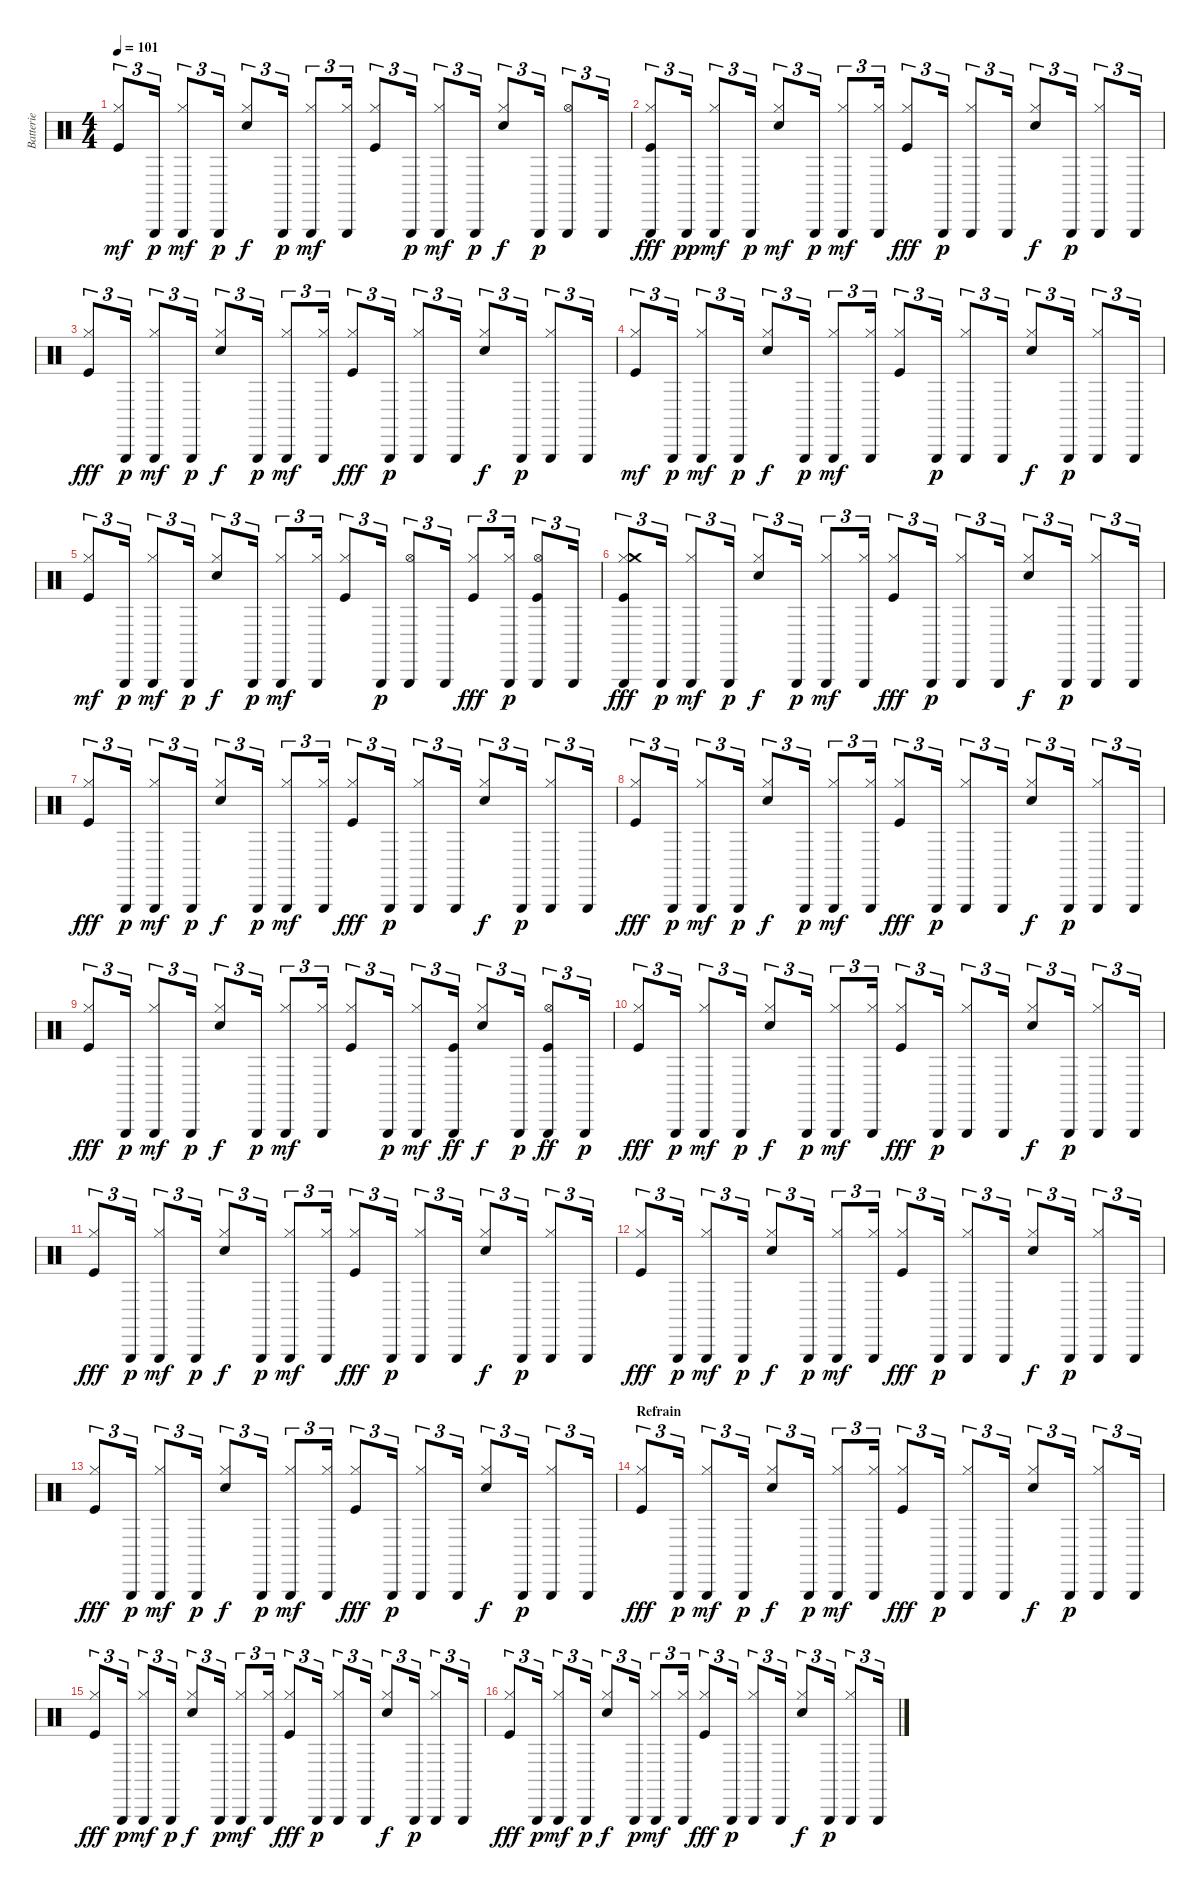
\track ("Batterie" "Batterie") {instrument percussion}
\staff {score}
\articulation defaults
\ts (4 4)
\tempo 101
\clef neutral
\ks c
("Kick (hit)" "Hi-Hat (closed)").8{tu (3 2) dy mf} "Triangle (hit)".16{tu (3 2) dy p} ("Triangle (hit)" "Hi-Hat (closed)").8{tu (3 2) dy mf} "Triangle (hit)".16{tu (3 2) dy p} ("Electric Snare (hit)" "Hi-Hat (closed)").8{tu (3 2) dy f} "Triangle (hit)".16{tu (3 2) dy p} ("Triangle (hit)" "Hi-Hat (closed)").8{tu (3 2) dy mf} ("Triangle (hit)" "Hi-Hat (closed)").16{tu (3 2)} ("Kick (hit)" "Hi-Hat (closed)").8{tu (3 2)} "Triangle (hit)".16{tu (3 2) dy p} ("Triangle (hit)" "Hi-Hat (closed)").8{tu (3 2) dy mf} "Triangle (hit)".16{tu (3 2) dy p} ("Electric Snare (hit)" "Hi-Hat (closed)").8{tu (3 2) dy f} "Triangle (hit)".16{tu (3 2) dy p} ("Hi-Hat (open)" "Triangle (hit)").8{tu (3 2)} "Triangle (hit)".16{tu (3 2)} |
("Triangle (hit)" "Kick (hit)" "Hi-Hat (closed)").8{tu (3 2) dy fff} "Triangle (hit)".16{tu (3 2) dy pp} ("Triangle (hit)" "Hi-Hat (closed)").8{tu (3 2) dy mf} "Triangle (hit)".16{tu (3 2) dy p} ("Electric Snare (hit)" "Hi-Hat (closed)").8{tu (3 2) dy mf} "Triangle (hit)".16{tu (3 2) dy p} ("Triangle (hit)" "Hi-Hat (closed)").8{tu (3 2) dy mf} ("Triangle (hit)" "Hi-Hat (closed)").16{tu (3 2)} ("Kick (hit)" "Hi-Hat (closed)").8{tu (3 2) dy fff} "Triangle (hit)".16{tu (3 2) dy p} ("Triangle (hit)" "Hi-Hat (closed)").8{tu (3 2)} "Triangle (hit)".16{tu (3 2)} ("Electric Snare (hit)" "Hi-Hat (closed)").8{tu (3 2) dy f} "Triangle (hit)".16{tu (3 2) dy p} ("Triangle (hit)" "Hi-Hat (closed)").8{tu (3 2)} "Triangle (hit)".16{tu (3 2)} |
("Kick (hit)" "Hi-Hat (closed)").8{tu (3 2) dy fff} "Triangle (hit)".16{tu (3 2) dy p} ("Triangle (hit)" "Hi-Hat (closed)").8{tu (3 2) dy mf} "Triangle (hit)".16{tu (3 2) dy p} ("Electric Snare (hit)" "Hi-Hat (closed)").8{tu (3 2) dy f} "Triangle (hit)".16{tu (3 2) dy p} ("Triangle (hit)" "Hi-Hat (closed)").8{tu (3 2) dy mf} ("Triangle (hit)" "Hi-Hat (closed)").16{tu (3 2)} ("Kick (hit)" "Hi-Hat (closed)").8{tu (3 2) dy fff} "Triangle (hit)".16{tu (3 2) dy p} ("Triangle (hit)" "Hi-Hat (closed)").8{tu (3 2)} "Triangle (hit)".16{tu (3 2)} ("Electric Snare (hit)" "Hi-Hat (closed)").8{tu (3 2) dy f} "Triangle (hit)".16{tu (3 2) dy p} ("Triangle (hit)" "Hi-Hat (closed)").8{tu (3 2)} "Triangle (hit)".16{tu (3 2)} |
("Kick (hit)" "Hi-Hat (closed)").8{tu (3 2) dy mf} "Triangle (hit)".16{tu (3 2) dy p} ("Triangle (hit)" "Hi-Hat (closed)").8{tu (3 2) dy mf} "Triangle (hit)".16{tu (3 2) dy p} ("Electric Snare (hit)" "Hi-Hat (closed)").8{tu (3 2) dy f} "Triangle (hit)".16{tu (3 2) dy p} ("Triangle (hit)" "Hi-Hat (closed)").8{tu (3 2) dy mf} ("Triangle (hit)" "Hi-Hat (closed)").16{tu (3 2)} ("Kick (hit)" "Hi-Hat (closed)").8{tu (3 2)} "Triangle (hit)".16{tu (3 2) dy p} ("Triangle (hit)" "Hi-Hat (closed)").8{tu (3 2)} "Triangle (hit)".16{tu (3 2)} ("Electric Snare (hit)" "Hi-Hat (closed)").8{tu (3 2) dy f} "Triangle (hit)".16{tu (3 2) dy p} ("Triangle (hit)" "Hi-Hat (closed)").8{tu (3 2)} "Triangle (hit)".16{tu (3 2)} |
("Kick (hit)" "Hi-Hat (closed)").8{tu (3 2) dy mf} "Triangle (hit)".16{tu (3 2) dy p} ("Triangle (hit)" "Hi-Hat (closed)").8{tu (3 2) dy mf} "Triangle (hit)".16{tu (3 2) dy p} ("Electric Snare (hit)" "Hi-Hat (closed)").8{tu (3 2) dy f} "Triangle (hit)".16{tu (3 2) dy p} ("Triangle (hit)" "Hi-Hat (closed)").8{tu (3 2) dy mf} ("Triangle (hit)" "Hi-Hat (closed)").16{tu (3 2)} ("Kick (hit)" "Hi-Hat (closed)").8{tu (3 2)} "Triangle (hit)".16{tu (3 2) dy p} ("Hi-Hat (open)" "Triangle (hit)").8{tu (3 2)} "Triangle (hit)".16{tu (3 2)} ("Kick (hit)" "Hi-Hat (closed)").8{tu (3 2) dy fff} ("Triangle (hit)" "Hi-Hat (closed)").16{tu (3 2) dy p} ("Hi-Hat (open)" "Triangle (hit)" "Kick (hit)").8{tu (3 2)} "Triangle (hit)".16{tu (3 2)} |
("Triangle (hit)" "Kick (hit)" "Hi-Hat (closed)" "Crash medium (hit)").8{tu (3 2) dy fff} "Triangle (hit)".16{tu (3 2) dy p} ("Triangle (hit)" "Hi-Hat (closed)").8{tu (3 2) dy mf} "Triangle (hit)".16{tu (3 2) dy p} ("Electric Snare (hit)" "Hi-Hat (closed)").8{tu (3 2) dy f} "Triangle (hit)".16{tu (3 2) dy p} ("Triangle (hit)" "Hi-Hat (closed)").8{tu (3 2) dy mf} ("Triangle (hit)" "Hi-Hat (closed)").16{tu (3 2)} ("Kick (hit)" "Hi-Hat (closed)").8{tu (3 2) dy fff} "Triangle (hit)".16{tu (3 2) dy p} ("Triangle (hit)" "Hi-Hat (closed)").8{tu (3 2)} "Triangle (hit)".16{tu (3 2)} ("Electric Snare (hit)" "Hi-Hat (closed)").8{tu (3 2) dy f} "Triangle (hit)".16{tu (3 2) dy p} ("Triangle (hit)" "Hi-Hat (closed)").8{tu (3 2)} "Triangle (hit)".16{tu (3 2)} |
("Kick (hit)" "Hi-Hat (closed)").8{tu (3 2) dy fff} "Triangle (hit)".16{tu (3 2) dy p} ("Triangle (hit)" "Hi-Hat (closed)").8{tu (3 2) dy mf} "Triangle (hit)".16{tu (3 2) dy p} ("Electric Snare (hit)" "Hi-Hat (closed)").8{tu (3 2) dy f} "Triangle (hit)".16{tu (3 2) dy p} ("Triangle (hit)" "Hi-Hat (closed)").8{tu (3 2) dy mf} ("Triangle (hit)" "Hi-Hat (closed)").16{tu (3 2)} ("Kick (hit)" "Hi-Hat (closed)").8{tu (3 2) dy fff} "Triangle (hit)".16{tu (3 2) dy p} ("Triangle (hit)" "Hi-Hat (closed)").8{tu (3 2)} "Triangle (hit)".16{tu (3 2)} ("Electric Snare (hit)" "Hi-Hat (closed)").8{tu (3 2) dy f} "Triangle (hit)".16{tu (3 2) dy p} ("Triangle (hit)" "Hi-Hat (closed)").8{tu (3 2)} "Triangle (hit)".16{tu (3 2)} |
("Kick (hit)" "Hi-Hat (closed)").8{tu (3 2) dy fff} "Triangle (hit)".16{tu (3 2) dy p} ("Triangle (hit)" "Hi-Hat (closed)").8{tu (3 2) dy mf} "Triangle (hit)".16{tu (3 2) dy p} ("Electric Snare (hit)" "Hi-Hat (closed)").8{tu (3 2) dy f} "Triangle (hit)".16{tu (3 2) dy p} ("Triangle (hit)" "Hi-Hat (closed)").8{tu (3 2) dy mf} ("Triangle (hit)" "Hi-Hat (closed)").16{tu (3 2)} ("Kick (hit)" "Hi-Hat (closed)").8{tu (3 2) dy fff} "Triangle (hit)".16{tu (3 2) dy p} ("Triangle (hit)" "Hi-Hat (closed)").8{tu (3 2)} "Triangle (hit)".16{tu (3 2)} ("Electric Snare (hit)" "Hi-Hat (closed)").8{tu (3 2) dy f} "Triangle (hit)".16{tu (3 2) dy p} ("Triangle (hit)" "Hi-Hat (closed)").8{tu (3 2)} "Triangle (hit)".16{tu (3 2)} |
("Kick (hit)" "Hi-Hat (closed)").8{tu (3 2) dy fff} "Triangle (hit)".16{tu (3 2) dy p} ("Triangle (hit)" "Hi-Hat (closed)").8{tu (3 2) dy mf} "Triangle (hit)".16{tu (3 2) dy p} ("Electric Snare (hit)" "Hi-Hat (closed)").8{tu (3 2) dy f} "Triangle (hit)".16{tu (3 2) dy p} ("Triangle (hit)" "Hi-Hat (closed)").8{tu (3 2) dy mf} ("Triangle (hit)" "Hi-Hat (closed)").16{tu (3 2)} ("Kick (hit)" "Hi-Hat (closed)").8{tu (3 2)} "Triangle (hit)".16{tu (3 2) dy p} ("Triangle (hit)" "Hi-Hat (closed)").8{tu (3 2) dy mf} ("Triangle (hit)" "Kick (hit)").16{tu (3 2) dy ff} ("Electric Snare (hit)" "Hi-Hat (closed)").8{tu (3 2) dy f} "Triangle (hit)".16{tu (3 2) dy p} ("Hi-Hat (open)" "Triangle (hit)" "Kick (hit)").8{tu (3 2) dy ff} "Triangle (hit)".16{tu (3 2) dy p} |
("Kick (hit)" "Hi-Hat (closed)").8{tu (3 2) dy fff} "Triangle (hit)".16{tu (3 2) dy p} ("Triangle (hit)" "Hi-Hat (closed)").8{tu (3 2) dy mf} "Triangle (hit)".16{tu (3 2) dy p} ("Electric Snare (hit)" "Hi-Hat (closed)").8{tu (3 2) dy f} "Triangle (hit)".16{tu (3 2) dy p} ("Triangle (hit)" "Hi-Hat (closed)").8{tu (3 2) dy mf} ("Triangle (hit)" "Hi-Hat (closed)").16{tu (3 2)} ("Kick (hit)" "Hi-Hat (closed)").8{tu (3 2) dy fff} "Triangle (hit)".16{tu (3 2) dy p} ("Triangle (hit)" "Hi-Hat (closed)").8{tu (3 2)} "Triangle (hit)".16{tu (3 2)} ("Electric Snare (hit)" "Hi-Hat (closed)").8{tu (3 2) dy f} "Triangle (hit)".16{tu (3 2) dy p} ("Triangle (hit)" "Hi-Hat (closed)").8{tu (3 2)} "Triangle (hit)".16{tu (3 2)} |
("Kick (hit)" "Hi-Hat (closed)").8{tu (3 2) dy fff} "Triangle (hit)".16{tu (3 2) dy p} ("Triangle (hit)" "Hi-Hat (closed)").8{tu (3 2) dy mf} "Triangle (hit)".16{tu (3 2) dy p} ("Electric Snare (hit)" "Hi-Hat (closed)").8{tu (3 2) dy f} "Triangle (hit)".16{tu (3 2) dy p} ("Triangle (hit)" "Hi-Hat (closed)").8{tu (3 2) dy mf} ("Triangle (hit)" "Hi-Hat (closed)").16{tu (3 2)} ("Kick (hit)" "Hi-Hat (closed)").8{tu (3 2) dy fff} "Triangle (hit)".16{tu (3 2) dy p} ("Triangle (hit)" "Hi-Hat (closed)").8{tu (3 2)} "Triangle (hit)".16{tu (3 2)} ("Electric Snare (hit)" "Hi-Hat (closed)").8{tu (3 2) dy f} "Triangle (hit)".16{tu (3 2) dy p} ("Triangle (hit)" "Hi-Hat (closed)").8{tu (3 2)} "Triangle (hit)".16{tu (3 2)} |
("Kick (hit)" "Hi-Hat (closed)").8{tu (3 2) dy fff} "Triangle (hit)".16{tu (3 2) dy p} ("Triangle (hit)" "Hi-Hat (closed)").8{tu (3 2) dy mf} "Triangle (hit)".16{tu (3 2) dy p} ("Electric Snare (hit)" "Hi-Hat (closed)").8{tu (3 2) dy f} "Triangle (hit)".16{tu (3 2) dy p} ("Triangle (hit)" "Hi-Hat (closed)").8{tu (3 2) dy mf} ("Triangle (hit)" "Hi-Hat (closed)").16{tu (3 2)} ("Kick (hit)" "Hi-Hat (closed)").8{tu (3 2) dy fff} "Triangle (hit)".16{tu (3 2) dy p} ("Triangle (hit)" "Hi-Hat (closed)").8{tu (3 2)} "Triangle (hit)".16{tu (3 2)} ("Electric Snare (hit)" "Hi-Hat (closed)").8{tu (3 2) dy f} "Triangle (hit)".16{tu (3 2) dy p} ("Triangle (hit)" "Hi-Hat (closed)").8{tu (3 2)} "Triangle (hit)".16{tu (3 2)} |
("Kick (hit)" "Hi-Hat (closed)").8{tu (3 2) dy fff} "Triangle (hit)".16{tu (3 2) dy p} ("Triangle (hit)" "Hi-Hat (closed)").8{tu (3 2) dy mf} "Triangle (hit)".16{tu (3 2) dy p} ("Electric Snare (hit)" "Hi-Hat (closed)").8{tu (3 2) dy f} "Triangle (hit)".16{tu (3 2) dy p} ("Triangle (hit)" "Hi-Hat (closed)").8{tu (3 2) dy mf} ("Triangle (hit)" "Hi-Hat (closed)").16{tu (3 2)} ("Kick (hit)" "Hi-Hat (closed)").8{tu (3 2) dy fff} "Triangle (hit)".16{tu (3 2) dy p} ("Triangle (hit)" "Hi-Hat (closed)").8{tu (3 2)} "Triangle (hit)".16{tu (3 2)} ("Electric Snare (hit)" "Hi-Hat (closed)").8{tu (3 2) dy f} "Triangle (hit)".16{tu (3 2) dy p} ("Triangle (hit)" "Hi-Hat (closed)").8{tu (3 2)} "Triangle (hit)".16{tu (3 2)} |
\section ("" "Refrain")
("Kick (hit)" "Hi-Hat (closed)").8{tu (3 2) dy fff} "Triangle (hit)".16{tu (3 2) dy p} ("Triangle (hit)" "Hi-Hat (closed)").8{tu (3 2) dy mf} "Triangle (hit)".16{tu (3 2) dy p} ("Electric Snare (hit)" "Hi-Hat (closed)").8{tu (3 2) dy f} "Triangle (hit)".16{tu (3 2) dy p} ("Triangle (hit)" "Hi-Hat (closed)").8{tu (3 2) dy mf} ("Triangle (hit)" "Hi-Hat (closed)").16{tu (3 2)} ("Kick (hit)" "Hi-Hat (closed)").8{tu (3 2) dy fff} "Triangle (hit)".16{tu (3 2) dy p} ("Triangle (hit)" "Hi-Hat (closed)").8{tu (3 2)} "Triangle (hit)".16{tu (3 2)} ("Electric Snare (hit)" "Hi-Hat (closed)").8{tu (3 2) dy f} "Triangle (hit)".16{tu (3 2) dy p} ("Triangle (hit)" "Hi-Hat (closed)").8{tu (3 2)} "Triangle (hit)".16{tu (3 2)} |
("Kick (hit)" "Hi-Hat (closed)").8{tu (3 2) dy fff} "Triangle (hit)".16{tu (3 2) dy p} ("Triangle (hit)" "Hi-Hat (closed)").8{tu (3 2) dy mf} "Triangle (hit)".16{tu (3 2) dy p} ("Electric Snare (hit)" "Hi-Hat (closed)").8{tu (3 2) dy f} "Triangle (hit)".16{tu (3 2) dy p} ("Triangle (hit)" "Hi-Hat (closed)").8{tu (3 2) dy mf} ("Triangle (hit)" "Hi-Hat (closed)").16{tu (3 2)} ("Kick (hit)" "Hi-Hat (closed)").8{tu (3 2) dy fff} "Triangle (hit)".16{tu (3 2) dy p} ("Triangle (hit)" "Hi-Hat (closed)").8{tu (3 2)} "Triangle (hit)".16{tu (3 2)} ("Electric Snare (hit)" "Hi-Hat (closed)").8{tu (3 2) dy f} "Triangle (hit)".16{tu (3 2) dy p} ("Triangle (hit)" "Hi-Hat (closed)").8{tu (3 2)} "Triangle (hit)".16{tu (3 2)} |
("Kick (hit)" "Hi-Hat (closed)").8{tu (3 2) dy fff} "Triangle (hit)".16{tu (3 2) dy p} ("Triangle (hit)" "Hi-Hat (closed)").8{tu (3 2) dy mf} "Triangle (hit)".16{tu (3 2) dy p} ("Electric Snare (hit)" "Hi-Hat (closed)").8{tu (3 2) dy f} "Triangle (hit)".16{tu (3 2) dy p} ("Triangle (hit)" "Hi-Hat (closed)").8{tu (3 2) dy mf} ("Triangle (hit)" "Hi-Hat (closed)").16{tu (3 2)} ("Kick (hit)" "Hi-Hat (closed)").8{tu (3 2) dy fff} "Triangle (hit)".16{tu (3 2) dy p} ("Triangle (hit)" "Hi-Hat (closed)").8{tu (3 2)} "Triangle (hit)".16{tu (3 2)} ("Electric Snare (hit)" "Hi-Hat (closed)").8{tu (3 2) dy f} "Triangle (hit)".16{tu (3 2) dy p} ("Triangle (hit)" "Hi-Hat (closed)").8{tu (3 2)} "Triangle (hit)".16{tu (3 2)}
